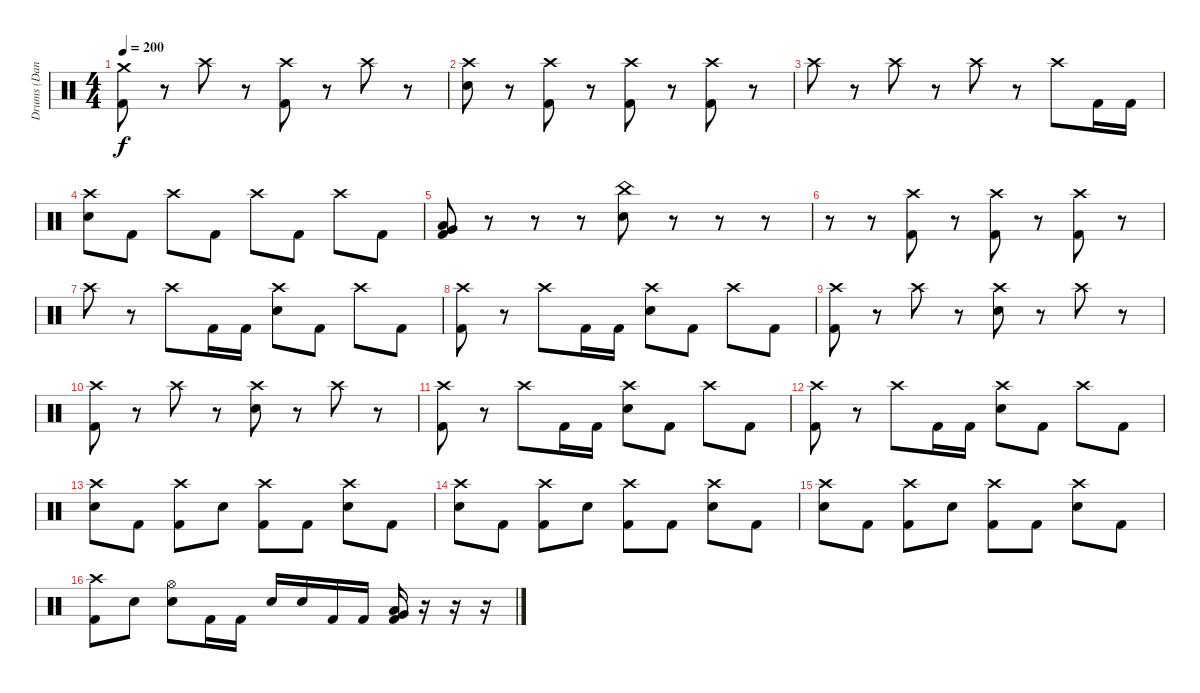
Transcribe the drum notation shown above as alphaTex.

\track ("Drums (Daniel)" "Drums (Dan") {instrument percussion}
\staff {score}
\articulation defaults
\ts (4 4)
\tempo 200
\clef neutral
\ks c
("Crash medium (hit)" "Kick (hit) 2").8{dy f} r.8 "Crash high (hit)".8 r.8 ("Crash high (hit)" "Kick (hit) 2").8 r.8 "Crash high (hit)".8 r.8 |
("Crash high (hit)" "Electric Snare (hit)").8 r.8 ("Crash high (hit)" "Kick (hit) 2").8 r.8 ("Crash high (hit)" "Kick (hit) 2").8 r.8 ("Crash high (hit)" "Kick (hit) 2").8 r.8 |
"Crash high (hit)".8 r.8 "Crash high (hit)".8 r.8 "Crash high (hit)".8 r.8 "Crash high (hit)".8 "Kick (hit) 2".16 "Kick (hit) 2".16 |
("Crash high (hit)" "Electric Snare (hit)").8 "Kick (hit) 2".8 "Crash high (hit)".8 "Kick (hit) 2".8 "Crash high (hit)".8 "Kick (hit) 2".8 "Crash high (hit)".8 "Kick (hit) 2".8 |
("Low Tom (hit)" "Very Low Tom (hit)" "Kick (hit) 2").8 r.8 r.8 r.8 ("China (hit)" "Electric Snare (hit)").8 r.8 r.8 r.8 |
r.8 r.8 ("Crash high (hit)" "Kick (hit) 2").8 r.8 ("Crash high (hit)" "Kick (hit) 2").8 r.8 ("Crash high (hit)" "Kick (hit) 2").8 r.8 |
"Crash high (hit)".8 r.8 "Crash high (hit)".8 "Kick (hit) 2".16 "Kick (hit) 2".16 ("Crash high (hit)" "Electric Snare (hit)").8 "Kick (hit) 2".8 "Crash high (hit)".8 "Kick (hit) 2".8 |
("Crash high (hit)" "Kick (hit) 2").8 r.8 "Crash high (hit)".8 "Kick (hit) 2".16 "Kick (hit) 2".16 ("Crash high (hit)" "Electric Snare (hit)").8 "Kick (hit) 2".8 "Crash high (hit)".8 "Kick (hit) 2".8 |
("Crash high (hit)" "Kick (hit) 2").8 r.8 "Crash high (hit)".8 r.8 ("Crash high (hit)" "Electric Snare (hit)").8 r.8 "Crash high (hit)".8 r.8 |
("Crash high (hit)" "Kick (hit) 2").8 r.8 "Crash high (hit)".8 r.8 ("Crash high (hit)" "Electric Snare (hit)").8 r.8 "Crash high (hit)".8 r.8 |
("Crash high (hit)" "Kick (hit) 2").8 r.8 "Crash high (hit)".8 "Kick (hit) 2".16 "Kick (hit) 2".16 ("Crash high (hit)" "Electric Snare (hit)").8 "Kick (hit) 2".8 "Crash high (hit)".8 "Kick (hit) 2".8 |
("Crash high (hit)" "Kick (hit) 2").8 r.8 "Crash high (hit)".8 "Kick (hit) 2".16 "Kick (hit) 2".16 ("Crash high (hit)" "Electric Snare (hit)").8 "Kick (hit) 2".8 "Crash high (hit)".8 "Kick (hit) 2".8 |
("Crash high (hit)" "Electric Snare (hit)").8 "Kick (hit) 2".8 ("Crash high (hit)" "Kick (hit) 2").8 "Electric Snare (hit)".8 ("Crash high (hit)" "Kick (hit) 2").8 "Kick (hit) 2".8 ("Crash high (hit)" "Electric Snare (hit)").8 "Kick (hit) 2".8 |
("Crash high (hit)" "Electric Snare (hit)").8 "Kick (hit) 2".8 ("Crash high (hit)" "Kick (hit) 2").8 "Electric Snare (hit)".8 ("Crash high (hit)" "Kick (hit) 2").8 "Kick (hit) 2".8 ("Crash high (hit)" "Electric Snare (hit)").8 "Kick (hit) 2".8 |
("Crash high (hit)" "Electric Snare (hit)").8 "Kick (hit) 2".8 ("Crash high (hit)" "Kick (hit) 2").8 "Electric Snare (hit)".8 ("Crash high (hit)" "Kick (hit) 2").8 "Kick (hit) 2".8 ("Crash high (hit)" "Electric Snare (hit)").8 "Kick (hit) 2".8 |
("Crash high (hit)" "Kick (hit) 2").8 "Electric Snare (hit)".8 ("Hi-Hat (open)" "Electric Snare (hit)").8 "Kick (hit) 2".16 "Kick (hit) 2".16 "Electric Snare (hit)".16 "Electric Snare (hit)".16 "Kick (hit) 2".16 "Kick (hit) 2".16 ("Low Tom (hit)" "Very Low Tom (hit)" "Kick (hit) 2").16 r.16 r.16 r.16
